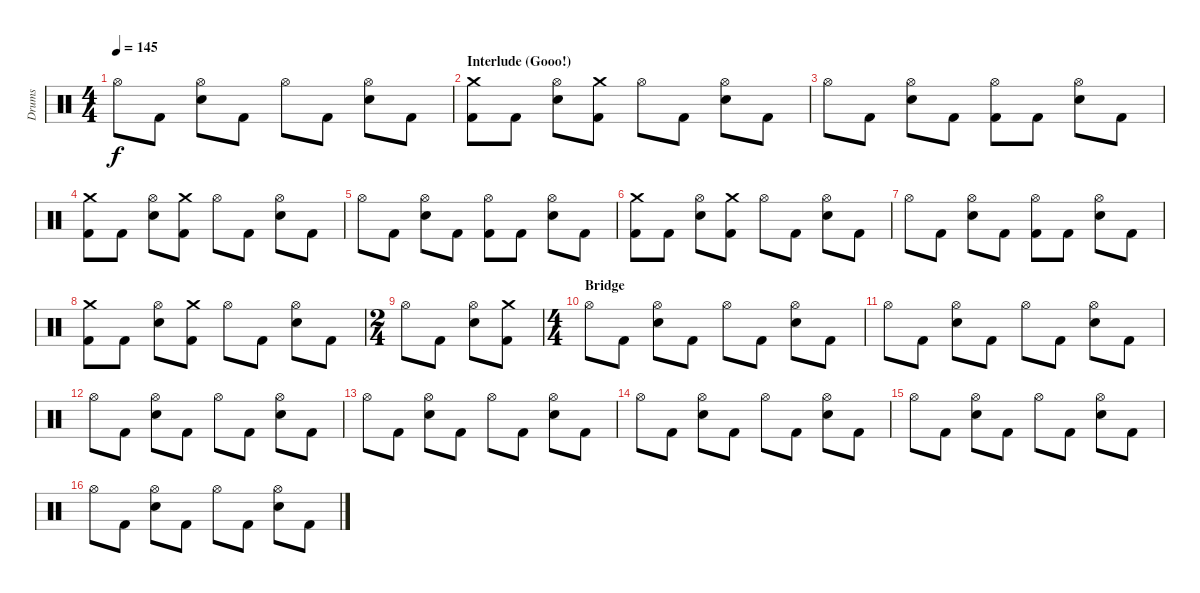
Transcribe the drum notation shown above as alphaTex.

\track ("Drums" "Drums") {instrument percussion}
\staff {score}
\articulation defaults
\ts (4 4)
\tempo 145
\clef neutral
\ks c "Hi-Hat (open)".8{dy f} "Kick (hit) 2".8
("Hi-Hat (open)" "Electric Snare (hit)").8 "Kick (hit) 2".8 "Hi-Hat (open)".8 "Kick (hit) 2".8 ("Hi-Hat (open)" "Electric Snare (hit)").8 "Kick (hit) 2".8 |
\section ("" "Interlude (Gooo!)")
("Crash medium (hit)" "Kick (hit) 2").8 "Kick (hit) 2".8 ("Hi-Hat (open)" "Electric Snare (hit)").8 ("Crash medium (hit)" "Kick (hit) 2").8 "Hi-Hat (open)".8 "Kick (hit) 2".8 ("Hi-Hat (open)" "Electric Snare (hit)").8 "Kick (hit) 2".8 |
"Hi-Hat (open)".8 "Kick (hit) 2".8 ("Hi-Hat (open)" "Electric Snare (hit)").8 "Kick (hit) 2".8 ("Hi-Hat (open)" "Kick (hit) 2").8 "Kick (hit) 2".8 ("Hi-Hat (open)" "Electric Snare (hit)").8 "Kick (hit) 2".8 |
("Crash medium (hit)" "Kick (hit) 2").8 "Kick (hit) 2".8 ("Hi-Hat (open)" "Electric Snare (hit)").8 ("Crash medium (hit)" "Kick (hit) 2").8 "Hi-Hat (open)".8 "Kick (hit) 2".8 ("Hi-Hat (open)" "Electric Snare (hit)").8 "Kick (hit) 2".8 |
"Hi-Hat (open)".8 "Kick (hit) 2".8 ("Hi-Hat (open)" "Electric Snare (hit)").8 "Kick (hit) 2".8 ("Hi-Hat (open)" "Kick (hit) 2").8 "Kick (hit) 2".8 ("Hi-Hat (open)" "Electric Snare (hit)").8 "Kick (hit) 2".8 |
("Crash medium (hit)" "Kick (hit) 2").8 "Kick (hit) 2".8 ("Hi-Hat (open)" "Electric Snare (hit)").8 ("Crash medium (hit)" "Kick (hit) 2").8 "Hi-Hat (open)".8 "Kick (hit) 2".8 ("Hi-Hat (open)" "Electric Snare (hit)").8 "Kick (hit) 2".8 |
"Hi-Hat (open)".8 "Kick (hit) 2".8 ("Hi-Hat (open)" "Electric Snare (hit)").8 "Kick (hit) 2".8 ("Hi-Hat (open)" "Kick (hit) 2").8 "Kick (hit) 2".8 ("Hi-Hat (open)" "Electric Snare (hit)").8 "Kick (hit) 2".8 |
("Crash medium (hit)" "Kick (hit) 2").8 "Kick (hit) 2".8 ("Hi-Hat (open)" "Electric Snare (hit)").8 ("Crash medium (hit)" "Kick (hit) 2").8 "Hi-Hat (open)".8 "Kick (hit) 2".8 ("Hi-Hat (open)" "Electric Snare (hit)").8 "Kick (hit) 2".8 |
\ts (2 4)
"Hi-Hat (open)".8 "Kick (hit) 2".8 ("Hi-Hat (open)" "Electric Snare (hit)").8 ("Crash medium (hit)" "Kick (hit) 2").8 |
\ts (4 4)
\section ("" "Bridge")
"Hi-Hat (open)".8 "Kick (hit) 2".8 ("Hi-Hat (open)" "Electric Snare (hit)").8 "Kick (hit) 2".8 "Hi-Hat (open)".8 "Kick (hit) 2".8 ("Hi-Hat (open)" "Electric Snare (hit)").8 "Kick (hit) 2".8 |
"Hi-Hat (open)".8 "Kick (hit) 2".8 ("Hi-Hat (open)" "Electric Snare (hit)").8 "Kick (hit) 2".8 "Hi-Hat (open)".8 "Kick (hit) 2".8 ("Hi-Hat (open)" "Electric Snare (hit)").8 "Kick (hit) 2".8 |
"Hi-Hat (open)".8 "Kick (hit) 2".8 ("Hi-Hat (open)" "Electric Snare (hit)").8 "Kick (hit) 2".8 "Hi-Hat (open)".8 "Kick (hit) 2".8 ("Hi-Hat (open)" "Electric Snare (hit)").8 "Kick (hit) 2".8 |
"Hi-Hat (open)".8 "Kick (hit) 2".8 ("Hi-Hat (open)" "Electric Snare (hit)").8 "Kick (hit) 2".8 "Hi-Hat (open)".8 "Kick (hit) 2".8 ("Hi-Hat (open)" "Electric Snare (hit)").8 "Kick (hit) 2".8 |
"Hi-Hat (open)".8 "Kick (hit) 2".8 ("Hi-Hat (open)" "Electric Snare (hit)").8 "Kick (hit) 2".8 "Hi-Hat (open)".8 "Kick (hit) 2".8 ("Hi-Hat (open)" "Electric Snare (hit)").8 "Kick (hit) 2".8 |
"Hi-Hat (open)".8 "Kick (hit) 2".8 ("Hi-Hat (open)" "Electric Snare (hit)").8 "Kick (hit) 2".8 "Hi-Hat (open)".8 "Kick (hit) 2".8 ("Hi-Hat (open)" "Electric Snare (hit)").8 "Kick (hit) 2".8 |
"Hi-Hat (open)".8 "Kick (hit) 2".8 ("Hi-Hat (open)" "Electric Snare (hit)").8 "Kick (hit) 2".8 "Hi-Hat (open)".8 "Kick (hit) 2".8 ("Hi-Hat (open)" "Electric Snare (hit)").8 "Kick (hit) 2".8
